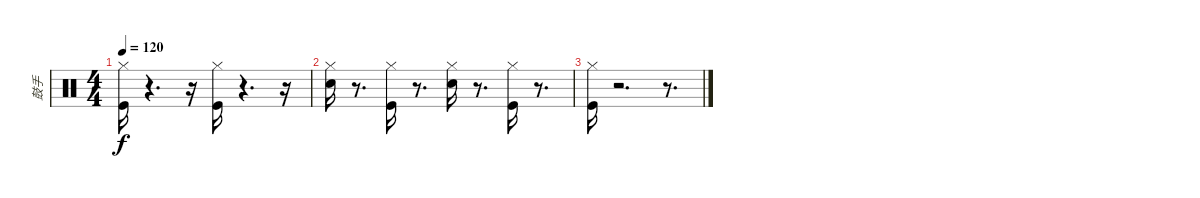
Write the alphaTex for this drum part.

\track ("鼓手" "鼓手") {instrument percussion}
\staff {score}
\articulation defaults
\ts (4 4)
\tempo 120
\clef neutral
\ks c
("Hi-Hat (closed)" "Kick (hit)").16{dy f} r.4{d} r.16 ("Hi-Hat (closed)" "Kick (hit)").16 r.4{d} r.16 |
("Hi-Hat (closed)" "Snare (hit) 2").16 r.8{d} ("Hi-Hat (closed)" "Kick (hit)").16 r.8{d} ("Hi-Hat (closed)" "Snare (hit) 2").16 r.8{d} ("Hi-Hat (closed)" "Kick (hit)").16 r.8{d} |
("Hi-Hat (closed)" "Kick (hit)").16 r.2{d} r.8{d}
